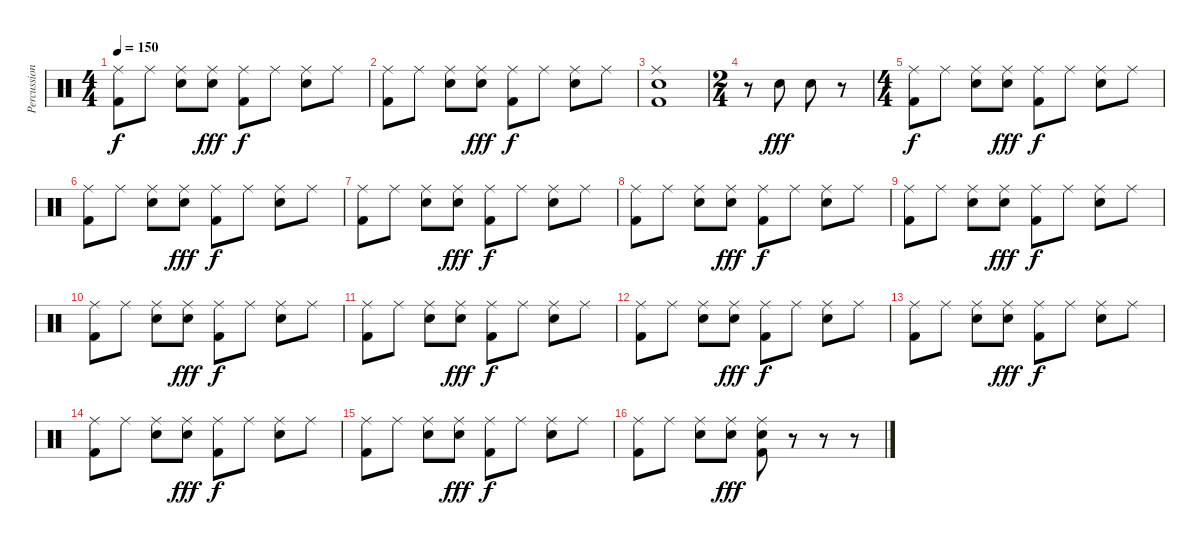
\track ("Percussions" "Percussion") {instrument percussion}
\staff {score}
\articulation defaults
\ts (4 4)
\tempo 150
\clef neutral
\ks c
("Ride (middle)" "Kick (hit) 2").8{dy f} "Ride (middle)".8 ("Ride (middle)" "Electric Snare (hit)").8 ("Ride (middle)" "Electric Snare (hit)").8{dy fff} ("Ride (middle)" "Kick (hit) 2").8{dy f} "Ride (middle)".8 ("Ride (middle)" "Electric Snare (hit)").8 "Ride (middle)".8 |
("Ride (middle)" "Kick (hit) 2").8 "Ride (middle)".8 ("Ride (middle)" "Electric Snare (hit)").8 ("Ride (middle)" "Electric Snare (hit)").8{dy fff} ("Ride (middle)" "Kick (hit) 2").8{dy f} "Ride (middle)".8 ("Ride (middle)" "Electric Snare (hit)").8 "Ride (middle)".8 |
("Ride (middle)" "Electric Snare (hit)" "Kick (hit) 2").1 |
\ts (2 4)
r.8 "Electric Snare (hit)".8{dy fff} "Electric Snare (hit)".8 r.8 |
\ts (4 4)
("Ride (middle)" "Kick (hit) 2").8{dy f} "Ride (middle)".8 ("Ride (middle)" "Electric Snare (hit)").8 ("Ride (middle)" "Electric Snare (hit)").8{dy fff} ("Ride (middle)" "Kick (hit) 2").8{dy f} "Ride (middle)".8 ("Ride (middle)" "Electric Snare (hit)").8 "Ride (middle)".8 |
("Ride (middle)" "Kick (hit) 2").8 "Ride (middle)".8 ("Ride (middle)" "Electric Snare (hit)").8 ("Ride (middle)" "Electric Snare (hit)").8{dy fff} ("Ride (middle)" "Kick (hit) 2").8{dy f} "Ride (middle)".8 ("Ride (middle)" "Electric Snare (hit)").8 "Ride (middle)".8 |
("Ride (middle)" "Kick (hit) 2").8 "Ride (middle)".8 ("Ride (middle)" "Electric Snare (hit)").8 ("Ride (middle)" "Electric Snare (hit)").8{dy fff} ("Ride (middle)" "Kick (hit) 2").8{dy f} "Ride (middle)".8 ("Ride (middle)" "Electric Snare (hit)").8 "Ride (middle)".8 |
("Ride (middle)" "Kick (hit) 2").8 "Ride (middle)".8 ("Ride (middle)" "Electric Snare (hit)").8 ("Ride (middle)" "Electric Snare (hit)").8{dy fff} ("Ride (middle)" "Kick (hit) 2").8{dy f} "Ride (middle)".8 ("Ride (middle)" "Electric Snare (hit)").8 "Ride (middle)".8 |
("Ride (middle)" "Kick (hit) 2").8 "Ride (middle)".8 ("Ride (middle)" "Electric Snare (hit)").8 ("Ride (middle)" "Electric Snare (hit)").8{dy fff} ("Ride (middle)" "Kick (hit) 2").8{dy f} "Ride (middle)".8 ("Ride (middle)" "Electric Snare (hit)").8 "Ride (middle)".8 |
("Ride (middle)" "Kick (hit) 2").8 "Ride (middle)".8 ("Ride (middle)" "Electric Snare (hit)").8 ("Ride (middle)" "Electric Snare (hit)").8{dy fff} ("Ride (middle)" "Kick (hit) 2").8{dy f} "Ride (middle)".8 ("Ride (middle)" "Electric Snare (hit)").8 "Ride (middle)".8 |
("Ride (middle)" "Kick (hit) 2").8 "Ride (middle)".8 ("Ride (middle)" "Electric Snare (hit)").8 ("Ride (middle)" "Electric Snare (hit)").8{dy fff} ("Ride (middle)" "Kick (hit) 2").8{dy f} "Ride (middle)".8 ("Ride (middle)" "Electric Snare (hit)").8 "Ride (middle)".8 |
("Ride (middle)" "Kick (hit) 2").8 "Ride (middle)".8 ("Ride (middle)" "Electric Snare (hit)").8 ("Ride (middle)" "Electric Snare (hit)").8{dy fff} ("Ride (middle)" "Kick (hit) 2").8{dy f} "Ride (middle)".8 ("Ride (middle)" "Electric Snare (hit)").8 "Ride (middle)".8 |
("Ride (middle)" "Kick (hit) 2").8 "Ride (middle)".8 ("Ride (middle)" "Electric Snare (hit)").8 ("Ride (middle)" "Electric Snare (hit)").8{dy fff} ("Ride (middle)" "Kick (hit) 2").8{dy f} "Ride (middle)".8 ("Ride (middle)" "Electric Snare (hit)").8 "Ride (middle)".8 |
("Ride (middle)" "Kick (hit) 2").8 "Ride (middle)".8 ("Ride (middle)" "Electric Snare (hit)").8 ("Ride (middle)" "Electric Snare (hit)").8{dy fff} ("Ride (middle)" "Kick (hit) 2").8{dy f} "Ride (middle)".8 ("Ride (middle)" "Electric Snare (hit)").8 "Ride (middle)".8 |
("Ride (middle)" "Kick (hit) 2").8 "Ride (middle)".8 ("Ride (middle)" "Electric Snare (hit)").8 ("Ride (middle)" "Electric Snare (hit)").8{dy fff} ("Ride (middle)" "Kick (hit) 2").8{dy f} "Ride (middle)".8 ("Ride (middle)" "Electric Snare (hit)").8 "Ride (middle)".8 |
("Ride (middle)" "Kick (hit) 2").8 "Ride (middle)".8 ("Ride (middle)" "Electric Snare (hit)").8 ("Ride (middle)" "Electric Snare (hit)").8{dy fff} ("Ride (middle)" "Electric Snare (hit)" "Kick (hit) 2").8 r.8 r.8 r.8
